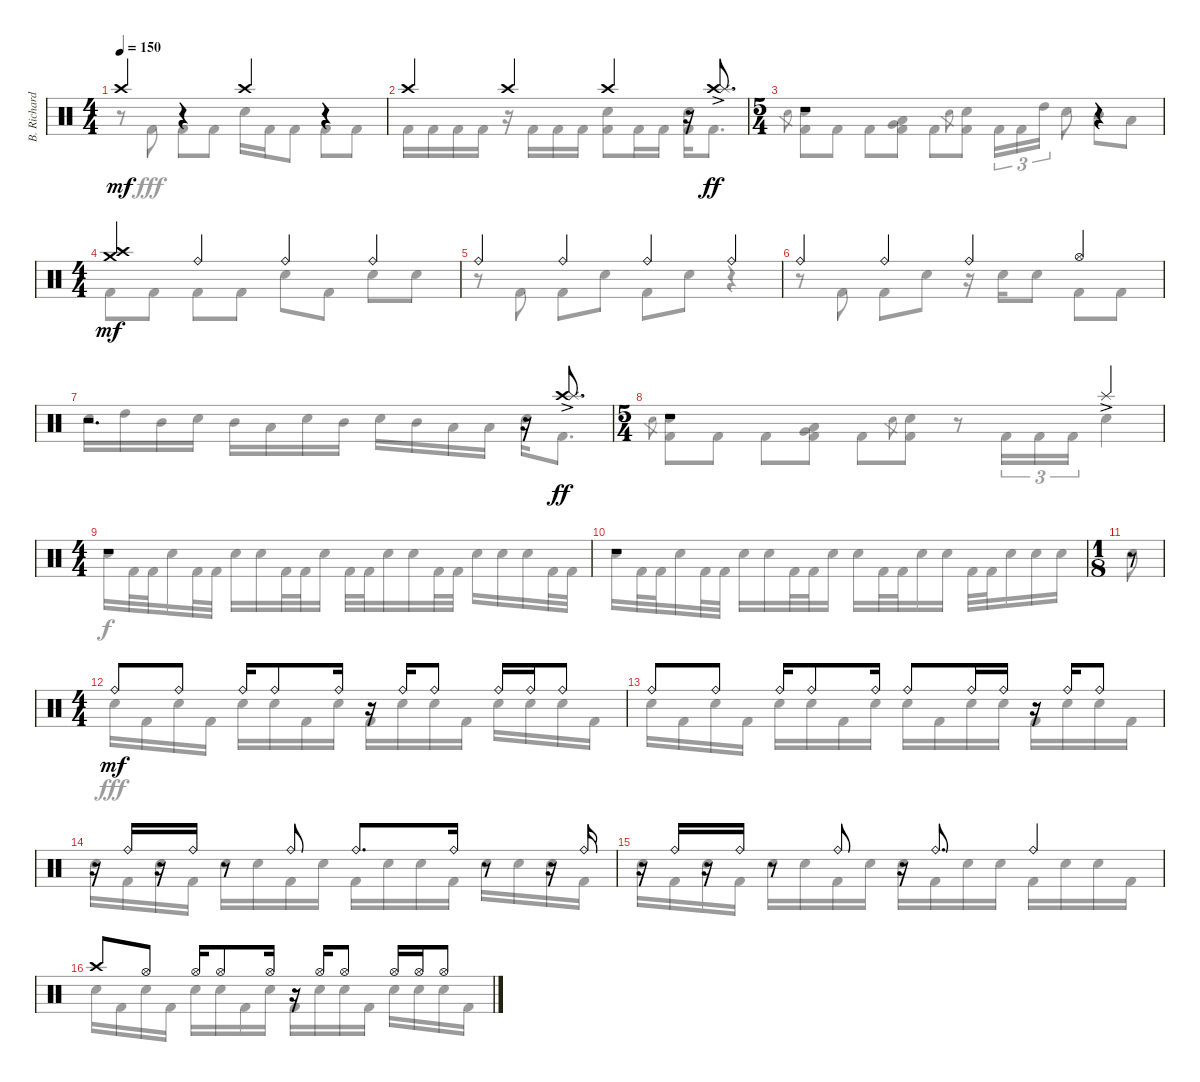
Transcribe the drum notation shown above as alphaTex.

\track ("B. Richardson Drums" "B. Richard") {instrument percussion}
\staff {score}
\articulation defaults
\voice
\ts (4 4)
\tempo 150
\clef neutral
\ks c "Crash high (hit)".4{dy mf}
r.4 "Crash high (hit)".4 r.4 |
"Crash high (hit)".4 "Crash high (hit)".4 "Crash high (hit)".4 r.16 ("Crash high (hit)" "Splash (hit)"{ac}).8{d dy ff} |
\ts (5 4)
r.1 r.4 |
\ts (4 4)
("Crash high (hit)" "Crash medium (hit)").4{dy mf} "Ride (bell)".4 "Ride (bell)".4 "Ride (bell)".4 |
"Ride (bell)".4 "Ride (bell)".4 "Ride (bell)".4 "Ride (bell)".4 |
"Ride (bell)".4 "Ride (bell)".4 "Ride (bell)".4 "Hi-Hat (open)".4 |
r.2{d} r.16 ("Crash high (hit)" "Splash (hit)"{ac}).8{d dy ff} |
\ts (5 4)
r.1 "Splash (hit)"{ac}.4 |
\ts (4 4)
r.1 |
r.1 |
\ts (1 8)
r.8 |
\ts (4 4)
"Ride (bell)".8{dy mf} "Ride (bell)".8 "Ride (bell)".16 "Ride (bell)".8 "Ride (bell)".16 r.16 "Ride (bell)".16 "Ride (bell)".8 "Ride (bell)".16 "Ride (bell)".16 "Ride (bell)".8 |
"Ride (bell)".8 "Ride (bell)".8 "Ride (bell)".16 "Ride (bell)".8 "Ride (bell)".16 "Ride (bell)".8 "Ride (bell)".16 "Ride (bell)".16 r.16 "Ride (bell)".16 "Ride (bell)".8 |
r.16 "Ride (bell)".16 r.16 "Ride (bell)".16 r.8 "Ride (bell)".8 "Ride (bell)".8{d} "Ride (bell)".16 r.8 r.16 "Ride (bell)".16 |
r.16 "Ride (bell)".16 r.16 "Ride (bell)".16 r.8 "Ride (bell)".8 r.16 "Ride (bell)".8{d} "Ride (bell)".4 |
"Crash high (hit)".8 "Hi-Hat (open)".8 "Hi-Hat (open)".16 "Hi-Hat (open)".8 "Hi-Hat (open)".16 r.16 "Hi-Hat (open)".16 "Hi-Hat (open)".8 "Hi-Hat (open)".16 "Hi-Hat (open)".16 "Hi-Hat (open)".8
\voice
\clef neutral
\ottava regular
\simile none
\ks c
r.8{dy fff} "Kick (hit) 2".8 "Kick (hit) 2".8 "Kick (hit) 2".8 "Electric Snare (hit)".16 "Kick (hit) 2".16 "Kick (hit) 2".8 "Kick (hit) 2".8 "Kick (hit) 2".8 |
"Kick (hit) 2".16 "Kick (hit) 2".16 "Kick (hit) 2".16 "Kick (hit) 2".16 r.16 "Kick (hit) 2".16 "Kick (hit) 2".16 "Kick (hit) 2".16 ("Electric Snare (hit)" "Kick (hit) 2").8 "Kick (hit) 2".16 "Kick (hit) 2".16 ("Electric Snare (hit)" "Kick (hit) 2").16 "Kick (hit) 2".8{d} |
"Electric Snare (hit)".8{gr} ("Electric Snare (hit)" "Kick (hit) 2").8 "Kick (hit) 2".8 "Kick (hit) 2".8 ("Low Tom (hit)" "Very Low Tom (hit)" "Kick (hit) 2").8 "Kick (hit) 2".8 "Electric Snare (hit)".8{gr} ("Electric Snare (hit)" "Kick (hit) 2").8 "Kick (hit) 2".16{tu (3 2)} "Kick (hit) 2".16{tu (3 2)} "High Tom (hit)".16{tu (3 2)} "Electric Snare (hit)".8 "Mid Tom (hit)".8 "Low Tom (hit)".8 |
"Kick (hit) 2".8 "Kick (hit) 2".8 "Kick (hit) 2".8 "Kick (hit) 2".8 "Electric Snare (hit)".8 "Kick (hit) 2".8 "Electric Snare (hit)".8 "Electric Snare (hit)".8 |
r.8 "Kick (hit) 2".8 "Kick (hit) 2".8 "Electric Snare (hit)".8 "Kick (hit) 2".8 "Electric Snare (hit)".8 r.4 |
r.8 "Kick (hit) 2".8 "Kick (hit) 2".8 "Electric Snare (hit)".8 r.16 "Electric Snare (hit)".16 "Electric Snare (hit)".8 "Kick (hit) 2".8 "Kick (hit) 2".8 |
"Electric Snare (hit)".16 "High Tom (hit)".16 "Mid Tom (hit)".16 "Electric Snare (hit)".16 "Mid Tom (hit)".16 "Low Tom (hit)".16 "Electric Snare (hit)".16 "Mid Tom (hit)".16 "Electric Snare (hit)".16 "Mid Tom (hit)".16 "Low Tom (hit)".16 "Low Tom (hit)".16 "Electric Snare (hit)".16 "Kick (hit) 2".8{d} |
"Electric Snare (hit)".8{gr} ("Electric Snare (hit)" "Kick (hit) 2").8 "Kick (hit) 2".8 "Kick (hit) 2".8 ("Low Tom (hit)" "Very Low Tom (hit)" "Kick (hit) 2").8 "Kick (hit) 2".8 "Electric Snare (hit)".8{gr} ("Electric Snare (hit)" "Kick (hit) 2").8 r.8 "Kick (hit) 2".16{tu (3 2)} "Kick (hit) 2".16{tu (3 2)} "Kick (hit) 2".16{tu (3 2)} "Electric Snare (hit)".4 |
"Electric Snare (hit)".16{dy f} "Kick (hit) 2".32 "Kick (hit) 2".32 "Electric Snare (hit)".16 "Kick (hit) 2".32 "Kick (hit) 2".32 "Electric Snare (hit)".16 "Electric Snare (hit)".16 "Kick (hit) 2".32 "Kick (hit) 2".32 "Electric Snare (hit)".16 "Kick (hit) 2".32 "Kick (hit) 2".32 "Electric Snare (hit)".16 "Electric Snare (hit)".16 "Kick (hit) 2".32 "Kick (hit) 2".32 "Electric Snare (hit)".16 "Electric Snare (hit)".16 "Electric Snare (hit)".16 "Kick (hit) 2".32 "Kick (hit) 2".32 |
"Electric Snare (hit)".16 "Kick (hit) 2".32 "Kick (hit) 2".32 "Electric Snare (hit)".16 "Kick (hit) 2".32 "Kick (hit) 2".32 "Electric Snare (hit)".16 "Electric Snare (hit)".16 "Kick (hit) 2".32 "Kick (hit) 2".32 "Electric Snare (hit)".16 "Electric Snare (hit)".16 "Kick (hit) 2".32 "Kick (hit) 2".32 "Electric Snare (hit)".16 "Electric Snare (hit)".16 "Kick (hit) 2".32 "Kick (hit) 2".32 "Electric Snare (hit)".16 "Electric Snare (hit)".16 "Electric Snare (hit)".16 |
"Electric Snare (hit)".8 |
"Electric Snare (hit)".16{dy fff} "Kick (hit) 2".16 "Electric Snare (hit)".16 "Kick (hit) 2".16 "Electric Snare (hit)".16 "Electric Snare (hit)".16 "Kick (hit) 2".16 "Electric Snare (hit)".16 "Kick (hit) 2".16 "Electric Snare (hit)".16 "Electric Snare (hit)".16 "Kick (hit) 2".16 "Electric Snare (hit)".16 "Electric Snare (hit)".16 "Electric Snare (hit)".16 "Kick (hit) 2".16 |
"Electric Snare (hit)".16 "Kick (hit) 2".16 "Electric Snare (hit)".16 "Kick (hit) 2".16 "Electric Snare (hit)".16 "Electric Snare (hit)".16 "Kick (hit) 2".16 "Electric Snare (hit)".16 "Electric Snare (hit)".16 "Kick (hit) 2".16 "Electric Snare (hit)".16 "Electric Snare (hit)".16 "Kick (hit) 2".16 "Electric Snare (hit)".16 "Electric Snare (hit)".16 "Kick (hit) 2".16 |
"Electric Snare (hit)".16 "Kick (hit) 2".16 "Electric Snare (hit)".16 "Kick (hit) 2".16 "Electric Snare (hit)".16 "Electric Snare (hit)".16 "Kick (hit) 2".16 "Electric Snare (hit)".16 "Kick (hit) 2".16 "Electric Snare (hit)".16 "Electric Snare (hit)".16 "Kick (hit) 2".16 "Electric Snare (hit)".16 "Electric Snare (hit)".16 "Electric Snare (hit)".16 "Kick (hit) 2".16 |
"Electric Snare (hit)".16 "Kick (hit) 2".16 "Electric Snare (hit)".16 "Kick (hit) 2".16 "Electric Snare (hit)".16 "Electric Snare (hit)".16 "Kick (hit) 2".16 "Electric Snare (hit)".16 "Electric Snare (hit)".16 "Kick (hit) 2".16 "Electric Snare (hit)".16 "Electric Snare (hit)".16 "Kick (hit) 2".16 "Electric Snare (hit)".16 "Electric Snare (hit)".16 "Kick (hit) 2".16 |
"Electric Snare (hit)".16 "Kick (hit) 2".16 "Electric Snare (hit)".16 "Kick (hit) 2".16 "Electric Snare (hit)".16 "Electric Snare (hit)".16 "Kick (hit) 2".16 "Electric Snare (hit)".16 "Kick (hit) 2".16 "Electric Snare (hit)".16 "Electric Snare (hit)".16 "Kick (hit) 2".16 "Electric Snare (hit)".16 "Electric Snare (hit)".16 "Electric Snare (hit)".16 "Kick (hit) 2".16
